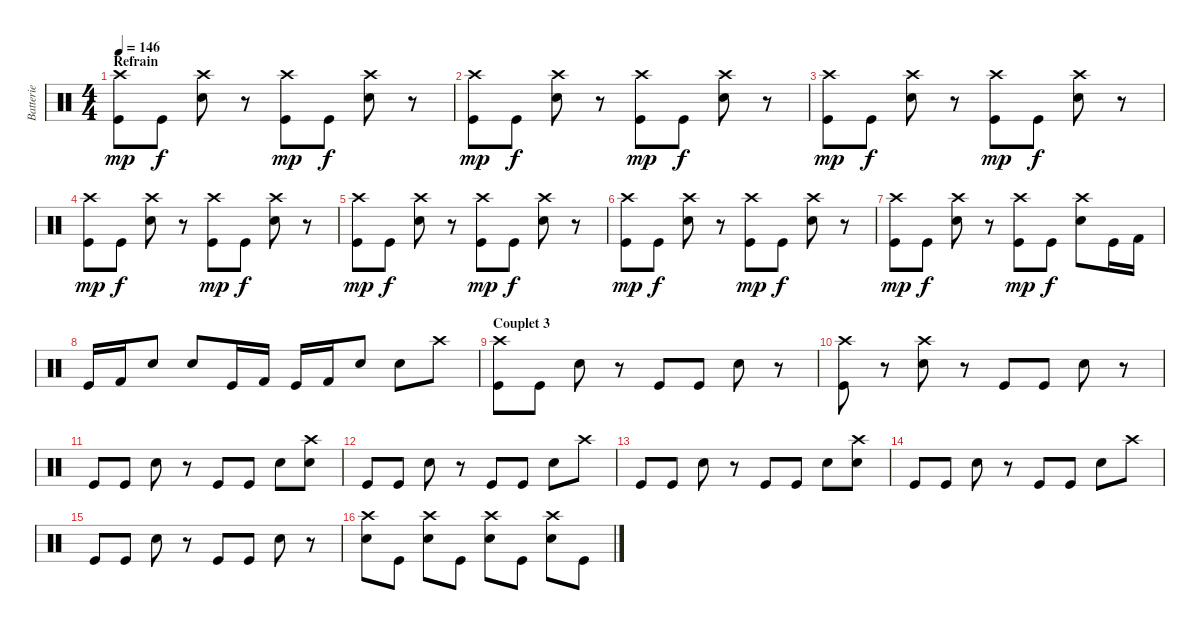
\track ("Batterie" "Batterie") {instrument percussion}
\staff {score}
\articulation defaults
\ts (4 4)
\section ("" "Refrain")
\tempo 146
\clef neutral
\ks c
("Crash high (hit)" "Kick (hit)").8{dy mp} "Kick (hit)".8{dy f} ("Crash high (hit)" "Snare (hit) 2").8 r.8 ("Crash high (hit)" "Kick (hit)").8{dy mp} "Kick (hit)".8{dy f} ("Crash high (hit)" "Snare (hit) 2").8 r.8 |
("Crash high (hit)" "Kick (hit)").8{dy mp} "Kick (hit)".8{dy f} ("Crash high (hit)" "Snare (hit) 2").8 r.8 ("Crash high (hit)" "Kick (hit)").8{dy mp} "Kick (hit)".8{dy f} ("Crash high (hit)" "Snare (hit) 2").8 r.8 |
("Crash high (hit)" "Kick (hit)").8{dy mp} "Kick (hit)".8{dy f} ("Crash high (hit)" "Snare (hit) 2").8 r.8 ("Crash high (hit)" "Kick (hit)").8{dy mp} "Kick (hit)".8{dy f} ("Crash high (hit)" "Snare (hit) 2").8 r.8 |
("Crash high (hit)" "Kick (hit)").8{dy mp} "Kick (hit)".8{dy f} ("Crash high (hit)" "Snare (hit) 2").8 r.8 ("Crash high (hit)" "Kick (hit)").8{dy mp} "Kick (hit)".8{dy f} ("Crash high (hit)" "Snare (hit) 2").8 r.8 |
("Crash high (hit)" "Kick (hit)").8{dy mp} "Kick (hit)".8{dy f} ("Crash high (hit)" "Snare (hit) 2").8 r.8 ("Crash high (hit)" "Kick (hit)").8{dy mp} "Kick (hit)".8{dy f} ("Crash high (hit)" "Snare (hit) 2").8 r.8 |
("Crash high (hit)" "Kick (hit)").8{dy mp} "Kick (hit)".8{dy f} ("Crash high (hit)" "Snare (hit) 2").8 r.8 ("Crash high (hit)" "Kick (hit)").8{dy mp} "Kick (hit)".8{dy f} ("Crash high (hit)" "Snare (hit) 2").8 r.8 |
("Crash high (hit)" "Kick (hit)").8{dy mp} "Kick (hit)".8{dy f} ("Crash high (hit)" "Snare (hit) 2").8 r.8 ("Crash high (hit)" "Kick (hit)").8{dy mp} "Kick (hit)".8{dy f} ("Crash high (hit)" "Snare (hit) 2").8 "Kick (hit)".16 "Kick (hit) 2".16 |
"Kick (hit)".16 "Kick (hit) 2".16 "Electric Snare (hit)".8 "Electric Snare (hit)".8 "Kick (hit)".16 "Kick (hit) 2".16 "Kick (hit)".16 "Kick (hit) 2".16 "Electric Snare (hit)".8 "Electric Snare (hit)".8 "Crash high (hit)".8 |
\section ("" "Couplet 3")
("Crash high (hit)" "Kick (hit)").8 "Kick (hit)".8 "Snare (hit) 2".8 r.8 "Kick (hit)".8 "Kick (hit)".8 "Snare (hit) 2".8 r.8 |
("Crash high (hit)" "Kick (hit)").8 r.8 ("Crash high (hit)" "Snare (hit) 2").8 r.8 "Kick (hit)".8 "Kick (hit)".8 "Snare (hit) 2".8 r.8 |
"Kick (hit)".8 "Kick (hit)".8 "Snare (hit) 2".8 r.8 "Kick (hit)".8 "Kick (hit)".8 "Snare (hit) 2".8 ("Crash high (hit)" "Snare (hit) 2").8 |
"Kick (hit)".8 "Kick (hit)".8 "Snare (hit) 2".8 r.8 "Kick (hit)".8 "Kick (hit)".8 "Snare (hit) 2".8 "Crash high (hit)".8 |
"Kick (hit)".8 "Kick (hit)".8 "Snare (hit) 2".8 r.8 "Kick (hit)".8 "Kick (hit)".8 "Snare (hit) 2".8 ("Crash high (hit)" "Snare (hit) 2").8 |
"Kick (hit)".8 "Kick (hit)".8 "Snare (hit) 2".8 r.8 "Kick (hit)".8 "Kick (hit)".8 "Snare (hit) 2".8 "Crash high (hit)".8 |
"Kick (hit)".8 "Kick (hit)".8 "Snare (hit) 2".8 r.8 "Kick (hit)".8 "Kick (hit)".8 "Snare (hit) 2".8 r.8 |
("Crash high (hit)" "Snare (hit) 2").8 "Kick (hit)".8 ("Crash high (hit)" "Snare (hit) 2").8 "Kick (hit)".8 ("Crash high (hit)" "Snare (hit) 2").8 "Kick (hit)".8 ("Crash high (hit)" "Snare (hit) 2").8 "Kick (hit)".8
